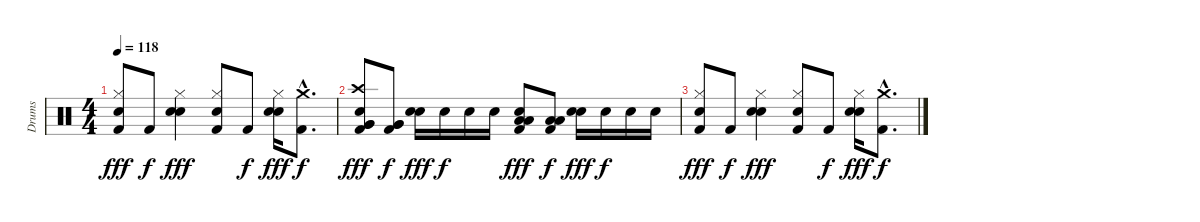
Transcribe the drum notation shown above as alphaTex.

\track ("Drums" "Drums") {instrument percussion}
\staff {score}
\articulation defaults
\ts (4 4)
\tempo 118
\clef neutral
\ks c
("Hand Clap (hit)" "Hi-Hat (closed)" "Kick (hit) 2").8{dy fff} "Kick (hit) 2".8{dy f} ("Hand Clap (hit)" "Hi-Hat (closed)" "Snare (hit) 2").4{dy fff} ("Hand Clap (hit)" "Hi-Hat (closed)" "Kick (hit) 2").8 "Kick (hit) 2".8{dy f} ("Hand Clap (hit)" "Hi-Hat (closed)" "Snare (hit) 2").16{dy fff} ("Crash medium (hit)"{hac} "Kick (hit) 2"{hac}).8{d dy f} |
("Crash high (hit)" "Hand Clap (hit)" "Very Low Tom (hit)" "Very Low Tom (hit)" "Kick (hit) 2").8{dy fff} ("Very Low Tom (hit)" "Very Low Tom (hit)" "Kick (hit) 2").8{dy f} ("Hand Clap (hit)" "Snare (hit) 2").16{dy fff} "Snare (hit) 2".16{dy f} "Snare (hit) 2".16 "Snare (hit) 2".16 ("Hand Clap (hit)" "Low Floor Tom (hit)" "Low Floor Tom (hit)" "Kick (hit) 2").8{dy fff} ("Low Floor Tom (hit)" "Low Floor Tom (hit)" "Kick (hit) 2").8{dy f} ("Hand Clap (hit)" "Snare (hit) 2").16{dy fff} "Snare (hit) 2".16{dy f} "Snare (hit) 2".16 "Snare (hit) 2".16 |
("Hand Clap (hit)" "Hi-Hat (closed)" "Kick (hit) 2").8{dy fff} "Kick (hit) 2".8{dy f} ("Hand Clap (hit)" "Hi-Hat (closed)" "Snare (hit) 2").4{dy fff} ("Hand Clap (hit)" "Hi-Hat (closed)" "Kick (hit) 2").8 "Kick (hit) 2".8{dy f} ("Hand Clap (hit)" "Hi-Hat (closed)" "Snare (hit) 2").16{dy fff} ("Crash medium (hit)"{hac} "Kick (hit) 2"{hac}).8{d dy f}
